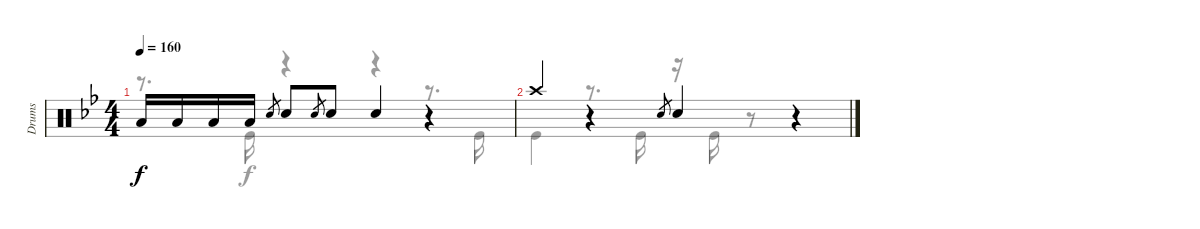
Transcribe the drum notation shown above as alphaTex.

\track ("Drums" "Drums") {instrument percussion}
\staff {score}
\articulation defaults
\voice
\ts (4 4)
\tempo 160
\clef neutral
\ks bb "Low Tom (hit)".16{dy f} "Low Tom (hit)".16 "Low Tom (hit)".16 "Low Tom (hit)".16 "Snare (hit) 2".8{gr} "Snare (hit) 2".8 "Snare (hit) 2".8{gr} "Snare (hit) 2".8 "Snare (hit) 2".4
r.4 |
"Crash high (hit)".4 r.4 "Snare (hit) 2".8{gr} "Snare (hit) 2".4 r.4
\voice
\clef neutral
\ottava regular
\simile none
\ks bb
r.8{d dy f} "Kick (hit)".16 r.4 r.4 r.8{d} "Kick (hit)".16 |
"Kick (hit)".4 r.8{d} "Kick (hit)".16 r.16 "Kick (hit)".16 r.8 r.4
